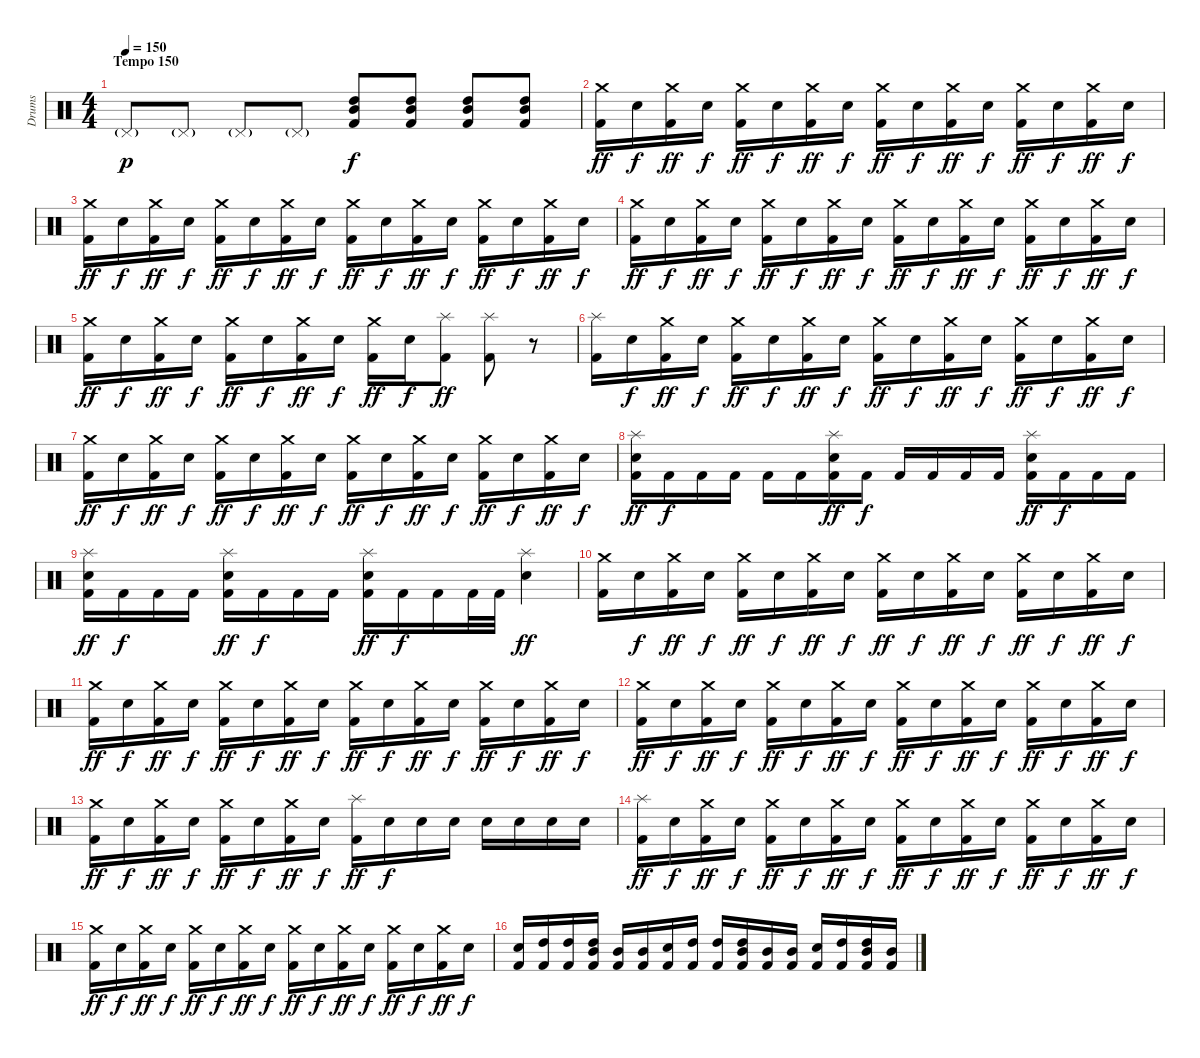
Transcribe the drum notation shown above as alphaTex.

\track ("Drums" "Drums") {instrument percussion}
\staff {score}
\articulation defaults
\ts (4 4)
\section ("" "Tempo 150")
\tempo 150
\clef neutral
\ks c "Pedal Hi-Hat (hit)"{g}.8{dy p} "Pedal Hi-Hat (hit)"{g}.8 "Pedal Hi-Hat (hit)"{g}.8 "Pedal Hi-Hat (hit)"{g}.8
("High Tom (hit)" "Mid Tom (hit)" "Kick (hit) 2").8{dy f} ("High Tom (hit)" "Mid Tom (hit)" "Kick (hit) 2").8 ("High Tom (hit)" "Mid Tom (hit)" "Kick (hit) 2").8 ("High Tom (hit)" "Mid Tom (hit)" "Kick (hit) 2").8 |
("Crash medium (hit)" "Kick (hit) 2").16{dy ff} "Electric Snare (hit)".16{dy f} ("Crash medium (hit)" "Kick (hit) 2").16{dy ff} "Electric Snare (hit)".16{dy f} ("Crash medium (hit)" "Kick (hit) 2").16{dy ff} "Electric Snare (hit)".16{dy f} ("Crash medium (hit)" "Kick (hit) 2").16{dy ff} "Electric Snare (hit)".16{dy f} ("Crash medium (hit)" "Kick (hit) 2").16{dy ff} "Electric Snare (hit)".16{dy f} ("Crash medium (hit)" "Kick (hit) 2").16{dy ff} "Electric Snare (hit)".16{dy f} ("Crash medium (hit)" "Kick (hit) 2").16{dy ff} "Electric Snare (hit)".16{dy f} ("Crash medium (hit)" "Kick (hit) 2").16{dy ff} "Electric Snare (hit)".16{dy f} |
("Crash medium (hit)" "Kick (hit) 2").16{dy ff} "Electric Snare (hit)".16{dy f} ("Crash medium (hit)" "Kick (hit) 2").16{dy ff} "Electric Snare (hit)".16{dy f} ("Crash medium (hit)" "Kick (hit) 2").16{dy ff} "Electric Snare (hit)".16{dy f} ("Crash medium (hit)" "Kick (hit) 2").16{dy ff} "Electric Snare (hit)".16{dy f} ("Crash medium (hit)" "Kick (hit) 2").16{dy ff} "Electric Snare (hit)".16{dy f} ("Crash medium (hit)" "Kick (hit) 2").16{dy ff} "Electric Snare (hit)".16{dy f} ("Crash medium (hit)" "Kick (hit) 2").16{dy ff} "Electric Snare (hit)".16{dy f} ("Crash medium (hit)" "Kick (hit) 2").16{dy ff} "Electric Snare (hit)".16{dy f} |
("Crash medium (hit)" "Kick (hit) 2").16{dy ff} "Electric Snare (hit)".16{dy f} ("Crash medium (hit)" "Kick (hit) 2").16{dy ff} "Electric Snare (hit)".16{dy f} ("Crash medium (hit)" "Kick (hit) 2").16{dy ff} "Electric Snare (hit)".16{dy f} ("Crash medium (hit)" "Kick (hit) 2").16{dy ff} "Electric Snare (hit)".16{dy f} ("Crash medium (hit)" "Kick (hit) 2").16{dy ff} "Electric Snare (hit)".16{dy f} ("Crash medium (hit)" "Kick (hit) 2").16{dy ff} "Electric Snare (hit)".16{dy f} ("Crash medium (hit)" "Kick (hit) 2").16{dy ff} "Electric Snare (hit)".16{dy f} ("Crash medium (hit)" "Kick (hit) 2").16{dy ff} "Electric Snare (hit)".16{dy f} |
("Crash medium (hit)" "Kick (hit) 2").16{dy ff} "Electric Snare (hit)".16{dy f} ("Crash medium (hit)" "Kick (hit) 2").16{dy ff} "Electric Snare (hit)".16{dy f} ("Crash medium (hit)" "Kick (hit) 2").16{dy ff} "Electric Snare (hit)".16{dy f} ("Crash medium (hit)" "Kick (hit) 2").16{dy ff} "Electric Snare (hit)".16{dy f} ("Crash medium (hit)" "Kick (hit) 2").16{dy ff} "Electric Snare (hit)".16{dy f} ("Splash (hit)" "Kick (hit) 2").8{dy ff} ("Splash (hit)" "Kick (hit) 2").8 r.8 |
("Splash (hit)" "Kick (hit) 2").16 "Electric Snare (hit)".16{dy f} ("Crash medium (hit)" "Kick (hit) 2").16{dy ff} "Electric Snare (hit)".16{dy f} ("Crash medium (hit)" "Kick (hit) 2").16{dy ff} "Electric Snare (hit)".16{dy f} ("Crash medium (hit)" "Kick (hit) 2").16{dy ff} "Electric Snare (hit)".16{dy f} ("Crash medium (hit)" "Kick (hit) 2").16{dy ff} "Electric Snare (hit)".16{dy f} ("Crash medium (hit)" "Kick (hit) 2").16{dy ff} "Electric Snare (hit)".16{dy f} ("Crash medium (hit)" "Kick (hit) 2").16{dy ff} "Electric Snare (hit)".16{dy f} ("Crash medium (hit)" "Kick (hit) 2").16{dy ff} "Electric Snare (hit)".16{dy f} |
("Crash medium (hit)" "Kick (hit) 2").16{dy ff} "Electric Snare (hit)".16{dy f} ("Crash medium (hit)" "Kick (hit) 2").16{dy ff} "Electric Snare (hit)".16{dy f} ("Crash medium (hit)" "Kick (hit) 2").16{dy ff} "Electric Snare (hit)".16{dy f} ("Crash medium (hit)" "Kick (hit) 2").16{dy ff} "Electric Snare (hit)".16{dy f} ("Crash medium (hit)" "Kick (hit) 2").16{dy ff} "Electric Snare (hit)".16{dy f} ("Crash medium (hit)" "Kick (hit) 2").16{dy ff} "Electric Snare (hit)".16{dy f} ("Crash medium (hit)" "Kick (hit) 2").16{dy ff} "Electric Snare (hit)".16{dy f} ("Crash medium (hit)" "Kick (hit) 2").16{dy ff} "Electric Snare (hit)".16{dy f} |
("Splash (hit)" "Electric Snare (hit)" "Kick (hit) 2").16{dy ff} "Kick (hit) 2".16{dy f} "Kick (hit) 2".16 "Kick (hit) 2".16 "Kick (hit) 2".16 "Kick (hit) 2".16 ("Splash (hit)" "Electric Snare (hit)" "Kick (hit) 2").16{dy ff} "Kick (hit) 2".16{dy f} "Kick (hit) 2".16 "Kick (hit) 2".16 "Kick (hit) 2".16 "Kick (hit) 2".16 ("Splash (hit)" "Electric Snare (hit)" "Kick (hit) 2").16{dy ff} "Kick (hit) 2".16{dy f} "Kick (hit) 2".16 "Kick (hit) 2".16 |
("Splash (hit)" "Electric Snare (hit)" "Kick (hit) 2").16{dy ff} "Kick (hit) 2".16{dy f} "Kick (hit) 2".16 "Kick (hit) 2".16 ("Splash (hit)" "Electric Snare (hit)" "Kick (hit) 2").16{dy ff} "Kick (hit) 2".16{dy f} "Kick (hit) 2".16 "Kick (hit) 2".16 ("Splash (hit)" "Electric Snare (hit)" "Kick (hit) 2").16{dy ff} "Kick (hit) 2".16{dy f} "Kick (hit) 2".16 "Kick (hit) 2".32 "Kick (hit) 2".32 ("Splash (hit)" "Electric Snare (hit)").4{dy ff} |
("Crash medium (hit)" "Kick (hit) 2").16 "Electric Snare (hit)".16{dy f} ("Crash medium (hit)" "Kick (hit) 2").16{dy ff} "Electric Snare (hit)".16{dy f} ("Crash medium (hit)" "Kick (hit) 2").16{dy ff} "Electric Snare (hit)".16{dy f} ("Crash medium (hit)" "Kick (hit) 2").16{dy ff} "Electric Snare (hit)".16{dy f} ("Crash medium (hit)" "Kick (hit) 2").16{dy ff} "Electric Snare (hit)".16{dy f} ("Crash medium (hit)" "Kick (hit) 2").16{dy ff} "Electric Snare (hit)".16{dy f} ("Crash medium (hit)" "Kick (hit) 2").16{dy ff} "Electric Snare (hit)".16{dy f} ("Crash medium (hit)" "Kick (hit) 2").16{dy ff} "Electric Snare (hit)".16{dy f} |
("Crash medium (hit)" "Kick (hit) 2").16{dy ff} "Electric Snare (hit)".16{dy f} ("Crash medium (hit)" "Kick (hit) 2").16{dy ff} "Electric Snare (hit)".16{dy f} ("Crash medium (hit)" "Kick (hit) 2").16{dy ff} "Electric Snare (hit)".16{dy f} ("Crash medium (hit)" "Kick (hit) 2").16{dy ff} "Electric Snare (hit)".16{dy f} ("Crash medium (hit)" "Kick (hit) 2").16{dy ff} "Electric Snare (hit)".16{dy f} ("Crash medium (hit)" "Kick (hit) 2").16{dy ff} "Electric Snare (hit)".16{dy f} ("Crash medium (hit)" "Kick (hit) 2").16{dy ff} "Electric Snare (hit)".16{dy f} ("Crash medium (hit)" "Kick (hit) 2").16{dy ff} "Electric Snare (hit)".16{dy f} |
("Crash medium (hit)" "Kick (hit) 2").16{dy ff} "Electric Snare (hit)".16{dy f} ("Crash medium (hit)" "Kick (hit) 2").16{dy ff} "Electric Snare (hit)".16{dy f} ("Crash medium (hit)" "Kick (hit) 2").16{dy ff} "Electric Snare (hit)".16{dy f} ("Crash medium (hit)" "Kick (hit) 2").16{dy ff} "Electric Snare (hit)".16{dy f} ("Crash medium (hit)" "Kick (hit) 2").16{dy ff} "Electric Snare (hit)".16{dy f} ("Crash medium (hit)" "Kick (hit) 2").16{dy ff} "Electric Snare (hit)".16{dy f} ("Crash medium (hit)" "Kick (hit) 2").16{dy ff} "Electric Snare (hit)".16{dy f} ("Crash medium (hit)" "Kick (hit) 2").16{dy ff} "Electric Snare (hit)".16{dy f} |
("Crash medium (hit)" "Kick (hit) 2").16{dy ff} "Electric Snare (hit)".16{dy f} ("Crash medium (hit)" "Kick (hit) 2").16{dy ff} "Electric Snare (hit)".16{dy f} ("Crash medium (hit)" "Kick (hit) 2").16{dy ff} "Electric Snare (hit)".16{dy f} ("Crash medium (hit)" "Kick (hit) 2").16{dy ff} "Electric Snare (hit)".16{dy f} ("Splash (hit)" "Kick (hit) 2").16{dy ff} "Electric Snare (hit)".16{dy f} "Electric Snare (hit)".16 "Electric Snare (hit)".16 "Electric Snare (hit)".16 "Electric Snare (hit)".16 "Electric Snare (hit)".16 "Electric Snare (hit)".16 |
("Splash (hit)" "Kick (hit) 2").16{dy ff} "Electric Snare (hit)".16{dy f} ("Crash medium (hit)" "Kick (hit) 2").16{dy ff} "Electric Snare (hit)".16{dy f} ("Crash medium (hit)" "Kick (hit) 2").16{dy ff} "Electric Snare (hit)".16{dy f} ("Crash medium (hit)" "Kick (hit) 2").16{dy ff} "Electric Snare (hit)".16{dy f} ("Crash medium (hit)" "Kick (hit) 2").16{dy ff} "Electric Snare (hit)".16{dy f} ("Crash medium (hit)" "Kick (hit) 2").16{dy ff} "Electric Snare (hit)".16{dy f} ("Crash medium (hit)" "Kick (hit) 2").16{dy ff} "Electric Snare (hit)".16{dy f} ("Crash medium (hit)" "Kick (hit) 2").16{dy ff} "Electric Snare (hit)".16{dy f} |
("Crash medium (hit)" "Kick (hit) 2").16{dy ff} "Electric Snare (hit)".16{dy f} ("Crash medium (hit)" "Kick (hit) 2").16{dy ff} "Electric Snare (hit)".16{dy f} ("Crash medium (hit)" "Kick (hit) 2").16{dy ff} "Electric Snare (hit)".16{dy f} ("Crash medium (hit)" "Kick (hit) 2").16{dy ff} "Electric Snare (hit)".16{dy f} ("Crash medium (hit)" "Kick (hit) 2").16{dy ff} "Electric Snare (hit)".16{dy f} ("Crash medium (hit)" "Kick (hit) 2").16{dy ff} "Electric Snare (hit)".16{dy f} ("Crash medium (hit)" "Kick (hit) 2").16{dy ff} "Electric Snare (hit)".16{dy f} ("Crash medium (hit)" "Kick (hit) 2").16{dy ff} "Electric Snare (hit)".16{dy f} |
("Electric Snare (hit)" "Kick (hit) 2").16 ("High Tom (hit)" "Kick (hit) 2").16 ("High Tom (hit)" "Kick (hit) 2").16 ("High Tom (hit)" "Mid Tom (hit)" "Kick (hit) 2").16 ("Mid Tom (hit)" "Kick (hit) 2").16 ("Mid Tom (hit)" "Kick (hit) 2").16 ("Electric Snare (hit)" "Kick (hit) 2").16 ("High Tom (hit)" "Kick (hit) 2").16 ("High Tom (hit)" "Kick (hit) 2").16 ("High Tom (hit)" "Mid Tom (hit)" "Kick (hit) 2").16 ("Mid Tom (hit)" "Kick (hit) 2").16 ("Mid Tom (hit)" "Kick (hit) 2").16 ("Electric Snare (hit)" "Kick (hit) 2").16 ("High Tom (hit)" "Kick (hit) 2").16 ("High Tom (hit)" "Mid Tom (hit)" "Kick (hit) 2").16 ("Mid Tom (hit)" "Kick (hit) 2").16
